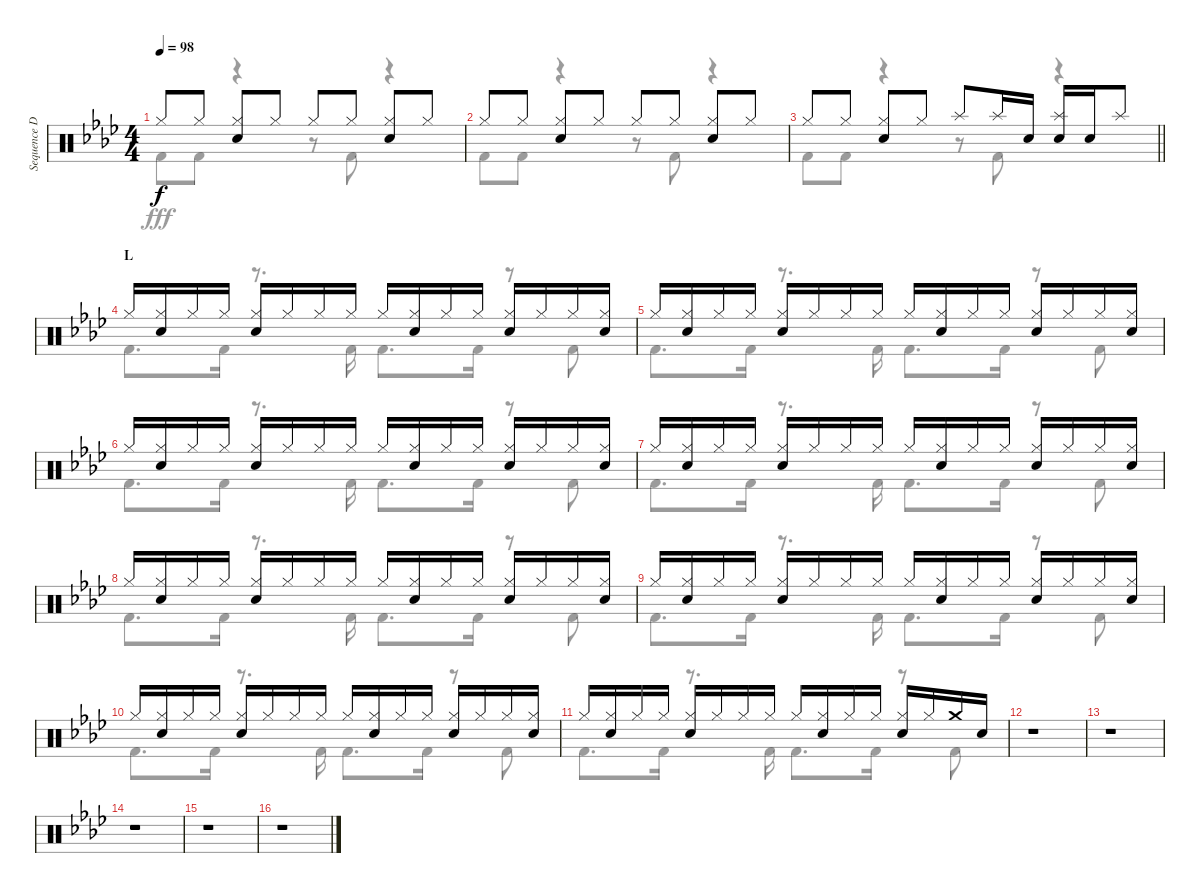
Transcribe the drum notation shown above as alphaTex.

\track ("Sequence Drums I" "Sequence D") {instrument percussion}
\staff {score}
\articulation defaults
\voice
\ts (4 4)
\tempo 98
\clef neutral
\ks ab "Hi-Hat (closed)".8{dy f} "Hi-Hat (closed)".8
("Hi-Hat (closed)" "Electric Snare (hit)").8 "Hi-Hat (closed)".8 "Hi-Hat (closed)".8 "Hi-Hat (closed)".8 ("Hi-Hat (closed)" "Electric Snare (hit)").8 "Hi-Hat (closed)".8 |
"Hi-Hat (closed)".8 "Hi-Hat (closed)".8 ("Hi-Hat (closed)" "Electric Snare (hit)").8 "Hi-Hat (closed)".8 "Hi-Hat (closed)".8 "Hi-Hat (closed)".8 ("Hi-Hat (closed)" "Electric Snare (hit)").8 "Hi-Hat (closed)".8 |
\barLineRight lightlight "Hi-Hat (closed)".8 "Hi-Hat (closed)".8
("Hi-Hat (closed)" "Electric Snare (hit)").8 "Hi-Hat (closed)".8 "Splash (hit)".8 "Splash (hit)".16 "Electric Snare (hit)".16 ("Splash (hit)" "Electric Snare (hit)").16 "Electric Snare (hit)".16 "Splash (hit)".8 |
\section ("" "L")
"Hi-Hat (closed)".16 ("Hi-Hat (closed)" "Electric Snare (hit)").16 "Hi-Hat (closed)".16 "Hi-Hat (closed)".16 ("Hi-Hat (closed)" "Electric Snare (hit)").16 "Hi-Hat (closed)".16 "Hi-Hat (closed)".16 "Hi-Hat (closed)".16 "Hi-Hat (closed)".16 ("Hi-Hat (closed)" "Electric Snare (hit)").16 "Hi-Hat (closed)".16 "Hi-Hat (closed)".16 ("Hi-Hat (closed)" "Electric Snare (hit)").16 "Hi-Hat (closed)".16 "Hi-Hat (closed)".16 ("Hi-Hat (closed)" "Electric Snare (hit)").16 |
"Hi-Hat (closed)".16 ("Hi-Hat (closed)" "Electric Snare (hit)").16 "Hi-Hat (closed)".16 "Hi-Hat (closed)".16 ("Hi-Hat (closed)" "Electric Snare (hit)").16 "Hi-Hat (closed)".16 "Hi-Hat (closed)".16 "Hi-Hat (closed)".16 "Hi-Hat (closed)".16 ("Hi-Hat (closed)" "Electric Snare (hit)").16 "Hi-Hat (closed)".16 "Hi-Hat (closed)".16 ("Hi-Hat (closed)" "Electric Snare (hit)").16 "Hi-Hat (closed)".16 "Hi-Hat (closed)".16 ("Hi-Hat (closed)" "Electric Snare (hit)").16 |
"Hi-Hat (closed)".16 ("Hi-Hat (closed)" "Electric Snare (hit)").16 "Hi-Hat (closed)".16 "Hi-Hat (closed)".16 ("Hi-Hat (closed)" "Electric Snare (hit)").16 "Hi-Hat (closed)".16 "Hi-Hat (closed)".16 "Hi-Hat (closed)".16 "Hi-Hat (closed)".16 ("Hi-Hat (closed)" "Electric Snare (hit)").16 "Hi-Hat (closed)".16 "Hi-Hat (closed)".16 ("Hi-Hat (closed)" "Electric Snare (hit)").16 "Hi-Hat (closed)".16 "Hi-Hat (closed)".16 ("Hi-Hat (closed)" "Electric Snare (hit)").16 |
"Hi-Hat (closed)".16 ("Hi-Hat (closed)" "Electric Snare (hit)").16 "Hi-Hat (closed)".16 "Hi-Hat (closed)".16 ("Hi-Hat (closed)" "Electric Snare (hit)").16 "Hi-Hat (closed)".16 "Hi-Hat (closed)".16 "Hi-Hat (closed)".16 "Hi-Hat (closed)".16 ("Hi-Hat (closed)" "Electric Snare (hit)").16 "Hi-Hat (closed)".16 "Hi-Hat (closed)".16 ("Hi-Hat (closed)" "Electric Snare (hit)").16 "Hi-Hat (closed)".16 "Hi-Hat (closed)".16 ("Hi-Hat (closed)" "Electric Snare (hit)").16 |
"Hi-Hat (closed)".16 ("Hi-Hat (closed)" "Electric Snare (hit)").16 "Hi-Hat (closed)".16 "Hi-Hat (closed)".16 ("Hi-Hat (closed)" "Electric Snare (hit)").16 "Hi-Hat (closed)".16 "Hi-Hat (closed)".16 "Hi-Hat (closed)".16 "Hi-Hat (closed)".16 ("Hi-Hat (closed)" "Electric Snare (hit)").16 "Hi-Hat (closed)".16 "Hi-Hat (closed)".16 ("Hi-Hat (closed)" "Electric Snare (hit)").16 "Hi-Hat (closed)".16 "Hi-Hat (closed)".16 ("Hi-Hat (closed)" "Electric Snare (hit)").16 |
"Hi-Hat (closed)".16 ("Hi-Hat (closed)" "Electric Snare (hit)").16 "Hi-Hat (closed)".16 "Hi-Hat (closed)".16 ("Hi-Hat (closed)" "Electric Snare (hit)").16 "Hi-Hat (closed)".16 "Hi-Hat (closed)".16 "Hi-Hat (closed)".16 "Hi-Hat (closed)".16 ("Hi-Hat (closed)" "Electric Snare (hit)").16 "Hi-Hat (closed)".16 "Hi-Hat (closed)".16 ("Hi-Hat (closed)" "Electric Snare (hit)").16 "Hi-Hat (closed)".16 "Hi-Hat (closed)".16 ("Hi-Hat (closed)" "Electric Snare (hit)").16 |
"Hi-Hat (closed)".16 ("Hi-Hat (closed)" "Electric Snare (hit)").16 "Hi-Hat (closed)".16 "Hi-Hat (closed)".16 ("Hi-Hat (closed)" "Electric Snare (hit)").16 "Hi-Hat (closed)".16 "Hi-Hat (closed)".16 "Hi-Hat (closed)".16 "Hi-Hat (closed)".16 ("Hi-Hat (closed)" "Electric Snare (hit)").16 "Hi-Hat (closed)".16 "Hi-Hat (closed)".16 ("Hi-Hat (closed)" "Electric Snare (hit)").16 "Hi-Hat (closed)".16 "Hi-Hat (closed)".16 ("Hi-Hat (closed)" "Electric Snare (hit)").16 |
"Hi-Hat (closed)".16 ("Hi-Hat (closed)" "Electric Snare (hit)").16 "Hi-Hat (closed)".16 "Hi-Hat (closed)".16 ("Hi-Hat (closed)" "Electric Snare (hit)").16 "Hi-Hat (closed)".16 "Hi-Hat (closed)".16 "Hi-Hat (closed)".16 "Hi-Hat (closed)".16 ("Hi-Hat (closed)" "Electric Snare (hit)").16 "Hi-Hat (closed)".16 "Hi-Hat (closed)".16 ("Hi-Hat (closed)" "Electric Snare (hit)").16 "Hi-Hat (closed)".16 "Crash medium (hit)".16 "Electric Snare (hit)".16 |
r.1 |
r.1 |
r.1 |
r.1 |
r.1
\voice
\clef neutral
\ottava regular
\simile none
\ks ab "Kick (hit) 2".8{dy fff} "Kick (hit) 2".8
r.4 r.8 "Kick (hit) 2".8 r.4 |
"Kick (hit) 2".8 "Kick (hit) 2".8 r.4 r.8 "Kick (hit) 2".8 r.4 |
\barLineRight lightlight "Kick (hit) 2".8 "Kick (hit) 2".8
r.4 r.8 "Kick (hit) 2".8 r.4 |
"Kick (hit) 2".8{d} "Kick (hit) 2".16 r.8{d} "Kick (hit) 2".16 "Kick (hit) 2".8{d} "Kick (hit) 2".16 r.8 "Kick (hit) 2".8 |
"Kick (hit) 2".8{d} "Kick (hit) 2".16 r.8{d} "Kick (hit) 2".16 "Kick (hit) 2".8{d} "Kick (hit) 2".16 r.8 "Kick (hit) 2".8 |
"Kick (hit) 2".8{d} "Kick (hit) 2".16 r.8{d} "Kick (hit) 2".16 "Kick (hit) 2".8{d} "Kick (hit) 2".16 r.8 "Kick (hit) 2".8 |
"Kick (hit) 2".8{d} "Kick (hit) 2".16 r.8{d} "Kick (hit) 2".16 "Kick (hit) 2".8{d} "Kick (hit) 2".16 r.8 "Kick (hit) 2".8 |
"Kick (hit) 2".8{d} "Kick (hit) 2".16 r.8{d} "Kick (hit) 2".16 "Kick (hit) 2".8{d} "Kick (hit) 2".16 r.8 "Kick (hit) 2".8 |
"Kick (hit) 2".8{d} "Kick (hit) 2".16 r.8{d} "Kick (hit) 2".16 "Kick (hit) 2".8{d} "Kick (hit) 2".16 r.8 "Kick (hit) 2".8 |
"Kick (hit) 2".8{d} "Kick (hit) 2".16 r.8{d} "Kick (hit) 2".16 "Kick (hit) 2".8{d} "Kick (hit) 2".16 r.8 "Kick (hit) 2".8 |
"Kick (hit) 2".8{d} "Kick (hit) 2".16 r.8{d} "Kick (hit) 2".16 "Kick (hit) 2".8{d} "Kick (hit) 2".16 r.8 "Kick (hit) 2".8 |
r.1 |
r.1 |
r.1 |
r.1 |
r.1
